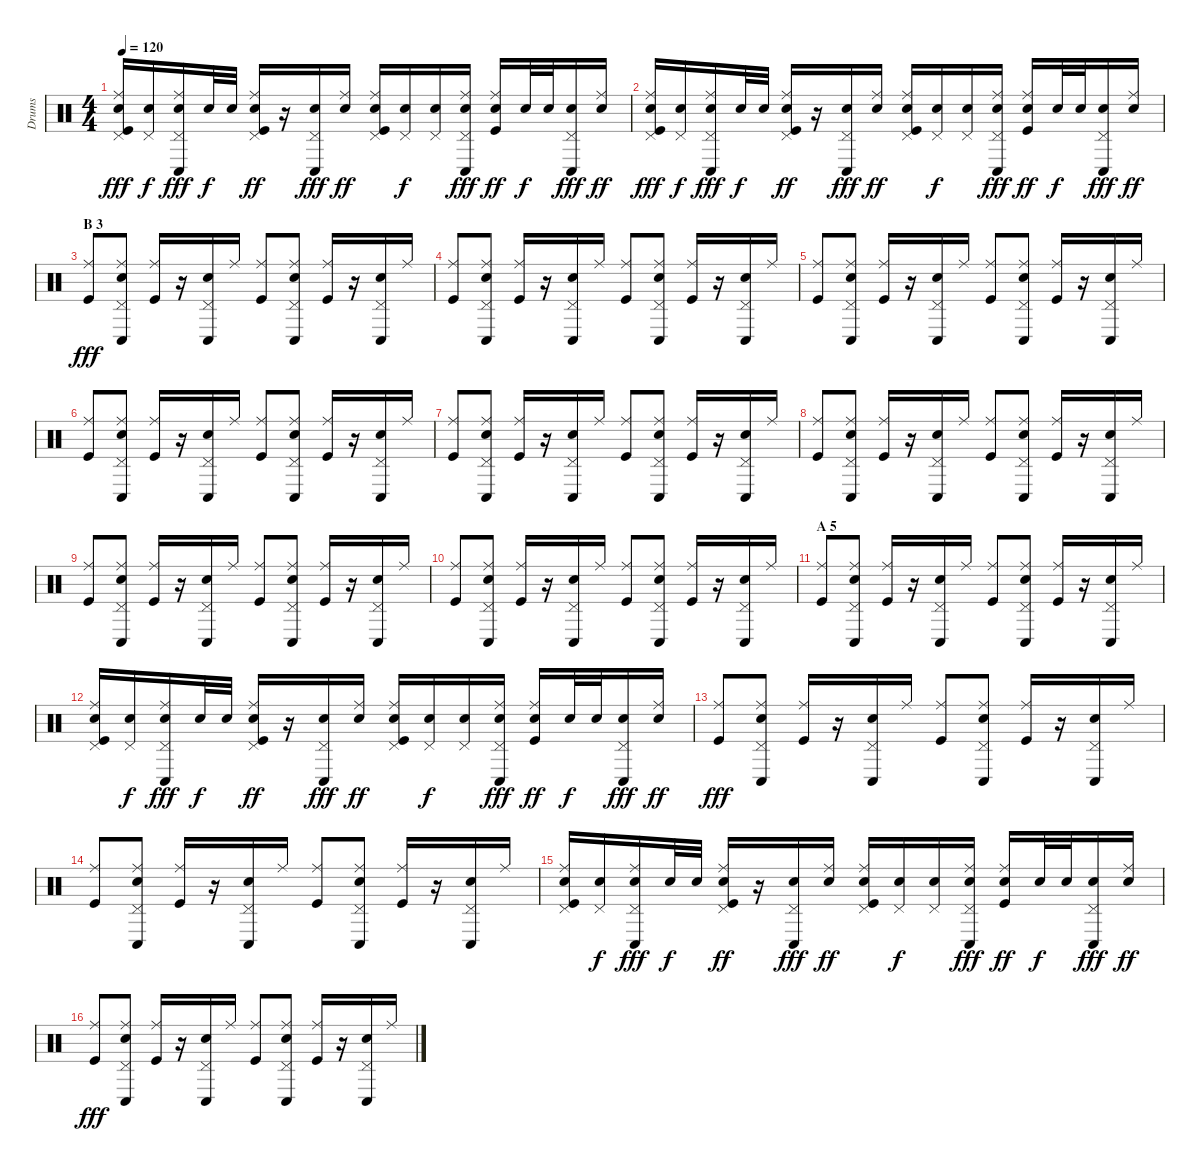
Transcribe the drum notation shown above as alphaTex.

\track ("Drums" "Drums") {instrument percussion}
\staff {score}
\articulation defaults
\ts (4 4)
\tempo 120
\clef neutral
\ks c
("Ride (middle)" "Pedal Hi-Hat (hit)" "Electric Snare (hit)" "Kick (hit)").16{dy fff} ("Pedal Hi-Hat (hit)" "Electric Snare (hit)").16{dy f} ("Ride (middle)" "Pedal Hi-Hat (hit)" "Conga low (hit)" "Electric Snare (hit)").16{dy fff} "Electric Snare (hit)".32{dy f} "Electric Snare (hit)".32 ("Ride (middle)" "Pedal Hi-Hat (hit)" "Electric Snare (hit)" "Kick (hit)").16{dy ff} r.16 ("Pedal Hi-Hat (hit)" "Conga low (hit)" "Electric Snare (hit)").16{dy fff} ("Ride (middle)" "Electric Snare (hit)").16{dy ff} ("Ride (middle)" "Pedal Hi-Hat (hit)" "Electric Snare (hit)" "Kick (hit)").16 ("Pedal Hi-Hat (hit)" "Electric Snare (hit)").16{dy f} ("Pedal Hi-Hat (hit)" "Electric Snare (hit)").16 ("Ride (middle)" "Pedal Hi-Hat (hit)" "Conga low (hit)" "Electric Snare (hit)").16{dy fff} ("Ride (middle)" "Electric Snare (hit)" "Kick (hit)").16{dy ff} "Electric Snare (hit)".32{dy f} "Electric Snare (hit)".32 ("Pedal Hi-Hat (hit)" "Conga low (hit)" "Electric Snare (hit)").16{dy fff} ("Ride (middle)" "Electric Snare (hit)").16{dy ff} |
("Ride (middle)" "Pedal Hi-Hat (hit)" "Electric Snare (hit)" "Kick (hit)").16{dy fff} ("Pedal Hi-Hat (hit)" "Electric Snare (hit)").16{dy f} ("Ride (middle)" "Pedal Hi-Hat (hit)" "Conga low (hit)" "Electric Snare (hit)").16{dy fff} "Electric Snare (hit)".32{dy f} "Electric Snare (hit)".32 ("Ride (middle)" "Pedal Hi-Hat (hit)" "Electric Snare (hit)" "Kick (hit)").16{dy ff} r.16 ("Pedal Hi-Hat (hit)" "Conga low (hit)" "Electric Snare (hit)").16{dy fff} ("Ride (middle)" "Electric Snare (hit)").16{dy ff} ("Ride (middle)" "Pedal Hi-Hat (hit)" "Electric Snare (hit)" "Kick (hit)").16 ("Pedal Hi-Hat (hit)" "Electric Snare (hit)").16{dy f} ("Pedal Hi-Hat (hit)" "Electric Snare (hit)").16 ("Ride (middle)" "Pedal Hi-Hat (hit)" "Conga low (hit)" "Electric Snare (hit)").16{dy fff} ("Ride (middle)" "Electric Snare (hit)" "Kick (hit)").16{dy ff} "Electric Snare (hit)".32{dy f} "Electric Snare (hit)".32 ("Pedal Hi-Hat (hit)" "Conga low (hit)" "Electric Snare (hit)").16{dy fff} ("Ride (middle)" "Electric Snare (hit)").16{dy ff} |
\section ("" "B 3")
("Ride (middle)" "Kick (hit)").8{dy fff} ("Ride (middle)" "Pedal Hi-Hat (hit)" "Conga low (hit)" "Electric Snare (hit)").8 ("Ride (middle)" "Kick (hit)").16 r.16 ("Pedal Hi-Hat (hit)" "Conga low (hit)" "Electric Snare (hit)").16 "Ride (middle)".16 ("Ride (middle)" "Kick (hit)").8 ("Ride (middle)" "Pedal Hi-Hat (hit)" "Conga low (hit)" "Electric Snare (hit)").8 ("Ride (middle)" "Kick (hit)").16 r.16 ("Pedal Hi-Hat (hit)" "Conga low (hit)" "Electric Snare (hit)").16 "Ride (middle)".16 |
("Ride (middle)" "Kick (hit)").8 ("Ride (middle)" "Pedal Hi-Hat (hit)" "Conga low (hit)" "Electric Snare (hit)").8 ("Ride (middle)" "Kick (hit)").16 r.16 ("Pedal Hi-Hat (hit)" "Conga low (hit)" "Electric Snare (hit)").16 "Ride (middle)".16 ("Ride (middle)" "Kick (hit)").8 ("Ride (middle)" "Pedal Hi-Hat (hit)" "Conga low (hit)" "Electric Snare (hit)").8 ("Ride (middle)" "Kick (hit)").16 r.16 ("Pedal Hi-Hat (hit)" "Conga low (hit)" "Electric Snare (hit)").16 "Ride (middle)".16 |
("Ride (middle)" "Kick (hit)").8 ("Ride (middle)" "Pedal Hi-Hat (hit)" "Conga low (hit)" "Electric Snare (hit)").8 ("Ride (middle)" "Kick (hit)").16 r.16 ("Pedal Hi-Hat (hit)" "Conga low (hit)" "Electric Snare (hit)").16 "Ride (middle)".16 ("Ride (middle)" "Kick (hit)").8 ("Ride (middle)" "Pedal Hi-Hat (hit)" "Conga low (hit)" "Electric Snare (hit)").8 ("Ride (middle)" "Kick (hit)").16 r.16 ("Pedal Hi-Hat (hit)" "Conga low (hit)" "Electric Snare (hit)").16 "Ride (middle)".16 |
("Ride (middle)" "Kick (hit)").8 ("Ride (middle)" "Pedal Hi-Hat (hit)" "Conga low (hit)" "Electric Snare (hit)").8 ("Ride (middle)" "Kick (hit)").16 r.16 ("Pedal Hi-Hat (hit)" "Conga low (hit)" "Electric Snare (hit)").16 "Ride (middle)".16 ("Ride (middle)" "Kick (hit)").8 ("Ride (middle)" "Pedal Hi-Hat (hit)" "Conga low (hit)" "Electric Snare (hit)").8 ("Ride (middle)" "Kick (hit)").16 r.16 ("Pedal Hi-Hat (hit)" "Conga low (hit)" "Electric Snare (hit)").16 "Ride (middle)".16 |
("Ride (middle)" "Kick (hit)").8 ("Ride (middle)" "Pedal Hi-Hat (hit)" "Conga low (hit)" "Electric Snare (hit)").8 ("Ride (middle)" "Kick (hit)").16 r.16 ("Pedal Hi-Hat (hit)" "Conga low (hit)" "Electric Snare (hit)").16 "Ride (middle)".16 ("Ride (middle)" "Kick (hit)").8 ("Ride (middle)" "Pedal Hi-Hat (hit)" "Conga low (hit)" "Electric Snare (hit)").8 ("Ride (middle)" "Kick (hit)").16 r.16 ("Pedal Hi-Hat (hit)" "Conga low (hit)" "Electric Snare (hit)").16 "Ride (middle)".16 |
("Ride (middle)" "Kick (hit)").8 ("Ride (middle)" "Pedal Hi-Hat (hit)" "Conga low (hit)" "Electric Snare (hit)").8 ("Ride (middle)" "Kick (hit)").16 r.16 ("Pedal Hi-Hat (hit)" "Conga low (hit)" "Electric Snare (hit)").16 "Ride (middle)".16 ("Ride (middle)" "Kick (hit)").8 ("Ride (middle)" "Pedal Hi-Hat (hit)" "Conga low (hit)" "Electric Snare (hit)").8 ("Ride (middle)" "Kick (hit)").16 r.16 ("Pedal Hi-Hat (hit)" "Conga low (hit)" "Electric Snare (hit)").16 "Ride (middle)".16 |
("Ride (middle)" "Kick (hit)").8 ("Ride (middle)" "Pedal Hi-Hat (hit)" "Conga low (hit)" "Electric Snare (hit)").8 ("Ride (middle)" "Kick (hit)").16 r.16 ("Pedal Hi-Hat (hit)" "Conga low (hit)" "Electric Snare (hit)").16 "Ride (middle)".16 ("Ride (middle)" "Kick (hit)").8 ("Ride (middle)" "Pedal Hi-Hat (hit)" "Conga low (hit)" "Electric Snare (hit)").8 ("Ride (middle)" "Kick (hit)").16 r.16 ("Pedal Hi-Hat (hit)" "Conga low (hit)" "Electric Snare (hit)").16 "Ride (middle)".16 |
("Ride (middle)" "Kick (hit)").8 ("Ride (middle)" "Pedal Hi-Hat (hit)" "Conga low (hit)" "Electric Snare (hit)").8 ("Ride (middle)" "Kick (hit)").16 r.16 ("Pedal Hi-Hat (hit)" "Conga low (hit)" "Electric Snare (hit)").16 "Ride (middle)".16 ("Ride (middle)" "Kick (hit)").8 ("Ride (middle)" "Pedal Hi-Hat (hit)" "Conga low (hit)" "Electric Snare (hit)").8 ("Ride (middle)" "Kick (hit)").16 r.16 ("Pedal Hi-Hat (hit)" "Conga low (hit)" "Electric Snare (hit)").16 "Ride (middle)".16 |
\section ("" "A 5")
("Ride (middle)" "Kick (hit)").8 ("Ride (middle)" "Pedal Hi-Hat (hit)" "Conga low (hit)" "Electric Snare (hit)").8 ("Ride (middle)" "Kick (hit)").16 r.16 ("Pedal Hi-Hat (hit)" "Conga low (hit)" "Electric Snare (hit)").16 "Ride (middle)".16 ("Ride (middle)" "Kick (hit)").8 ("Ride (middle)" "Pedal Hi-Hat (hit)" "Conga low (hit)" "Electric Snare (hit)").8 ("Ride (middle)" "Kick (hit)").16 r.16 ("Pedal Hi-Hat (hit)" "Conga low (hit)" "Electric Snare (hit)").16 "Ride (middle)".16 |
("Ride (middle)" "Pedal Hi-Hat (hit)" "Electric Snare (hit)" "Kick (hit)").16 ("Pedal Hi-Hat (hit)" "Electric Snare (hit)").16{dy f} ("Ride (middle)" "Pedal Hi-Hat (hit)" "Conga low (hit)" "Electric Snare (hit)").16{dy fff} "Electric Snare (hit)".32{dy f} "Electric Snare (hit)".32 ("Ride (middle)" "Pedal Hi-Hat (hit)" "Electric Snare (hit)" "Kick (hit)").16{dy ff} r.16 ("Pedal Hi-Hat (hit)" "Conga low (hit)" "Electric Snare (hit)").16{dy fff} ("Ride (middle)" "Electric Snare (hit)").16{dy ff} ("Ride (middle)" "Pedal Hi-Hat (hit)" "Electric Snare (hit)" "Kick (hit)").16 ("Pedal Hi-Hat (hit)" "Electric Snare (hit)").16{dy f} ("Pedal Hi-Hat (hit)" "Electric Snare (hit)").16 ("Ride (middle)" "Pedal Hi-Hat (hit)" "Conga low (hit)" "Electric Snare (hit)").16{dy fff} ("Ride (middle)" "Electric Snare (hit)" "Kick (hit)").16{dy ff} "Electric Snare (hit)".32{dy f} "Electric Snare (hit)".32 ("Pedal Hi-Hat (hit)" "Conga low (hit)" "Electric Snare (hit)").16{dy fff} ("Ride (middle)" "Electric Snare (hit)").16{dy ff} |
("Ride (middle)" "Kick (hit)").8{dy fff} ("Ride (middle)" "Pedal Hi-Hat (hit)" "Conga low (hit)" "Electric Snare (hit)").8 ("Ride (middle)" "Kick (hit)").16 r.16 ("Pedal Hi-Hat (hit)" "Conga low (hit)" "Electric Snare (hit)").16 "Ride (middle)".16 ("Ride (middle)" "Kick (hit)").8 ("Ride (middle)" "Pedal Hi-Hat (hit)" "Conga low (hit)" "Electric Snare (hit)").8 ("Ride (middle)" "Kick (hit)").16 r.16 ("Pedal Hi-Hat (hit)" "Conga low (hit)" "Electric Snare (hit)").16 "Ride (middle)".16 |
("Ride (middle)" "Kick (hit)").8 ("Ride (middle)" "Pedal Hi-Hat (hit)" "Conga low (hit)" "Electric Snare (hit)").8 ("Ride (middle)" "Kick (hit)").16 r.16 ("Pedal Hi-Hat (hit)" "Conga low (hit)" "Electric Snare (hit)").16 "Ride (middle)".16 ("Ride (middle)" "Kick (hit)").8 ("Ride (middle)" "Pedal Hi-Hat (hit)" "Conga low (hit)" "Electric Snare (hit)").8 ("Ride (middle)" "Kick (hit)").16 r.16 ("Pedal Hi-Hat (hit)" "Conga low (hit)" "Electric Snare (hit)").16 "Ride (middle)".16 |
("Ride (middle)" "Pedal Hi-Hat (hit)" "Electric Snare (hit)" "Kick (hit)").16 ("Pedal Hi-Hat (hit)" "Electric Snare (hit)").16{dy f} ("Ride (middle)" "Pedal Hi-Hat (hit)" "Conga low (hit)" "Electric Snare (hit)").16{dy fff} "Electric Snare (hit)".32{dy f} "Electric Snare (hit)".32 ("Ride (middle)" "Pedal Hi-Hat (hit)" "Electric Snare (hit)" "Kick (hit)").16{dy ff} r.16 ("Pedal Hi-Hat (hit)" "Conga low (hit)" "Electric Snare (hit)").16{dy fff} ("Ride (middle)" "Electric Snare (hit)").16{dy ff} ("Ride (middle)" "Pedal Hi-Hat (hit)" "Electric Snare (hit)" "Kick (hit)").16 ("Pedal Hi-Hat (hit)" "Electric Snare (hit)").16{dy f} ("Pedal Hi-Hat (hit)" "Electric Snare (hit)").16 ("Ride (middle)" "Pedal Hi-Hat (hit)" "Conga low (hit)" "Electric Snare (hit)").16{dy fff} ("Ride (middle)" "Electric Snare (hit)" "Kick (hit)").16{dy ff} "Electric Snare (hit)".32{dy f} "Electric Snare (hit)".32 ("Pedal Hi-Hat (hit)" "Conga low (hit)" "Electric Snare (hit)").16{dy fff} ("Ride (middle)" "Electric Snare (hit)").16{dy ff} |
("Ride (middle)" "Kick (hit)").8{dy fff} ("Ride (middle)" "Pedal Hi-Hat (hit)" "Conga low (hit)" "Electric Snare (hit)").8 ("Ride (middle)" "Kick (hit)").16 r.16 ("Pedal Hi-Hat (hit)" "Conga low (hit)" "Electric Snare (hit)").16 "Ride (middle)".16 ("Ride (middle)" "Kick (hit)").8 ("Ride (middle)" "Pedal Hi-Hat (hit)" "Conga low (hit)" "Electric Snare (hit)").8 ("Ride (middle)" "Kick (hit)").16 r.16 ("Pedal Hi-Hat (hit)" "Conga low (hit)" "Electric Snare (hit)").16 "Ride (middle)".16
